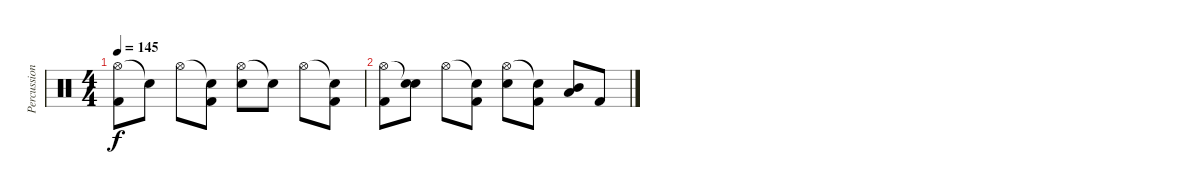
\track ("Percussion" "Percussion") {instrument percussion}
\staff {score}
\articulation defaults
\ts (4 4)
\tempo 145
\clef neutral
\ks c
("Hi-Hat (open)" "Kick (hit) 2").8{dy f} "Snare (hit)"{t}.8 "Hi-Hat (open)".8 ("Snare (hit)"{t} "Kick (hit) 2").8 ("Hi-Hat (open)" "Electric Snare (hit)").8 "Snare (hit)"{t}.8 "Hi-Hat (open)".8 ("Snare (hit)"{t} "Kick (hit) 2").8 |
("Hi-Hat (open)" "Kick (hit) 2").8 ("Snare (hit)"{t} "Electric Snare (hit)").8 "Hi-Hat (open)".8 ("Snare (hit)"{t} "Kick (hit) 2").8 ("Hi-Hat (open)" "Electric Snare (hit)").8 ("Snare (hit)"{t} "Kick (hit) 2").8 ("Mid Tom (hit)" "Low Tom (hit)").8 "Kick (hit) 2".8
